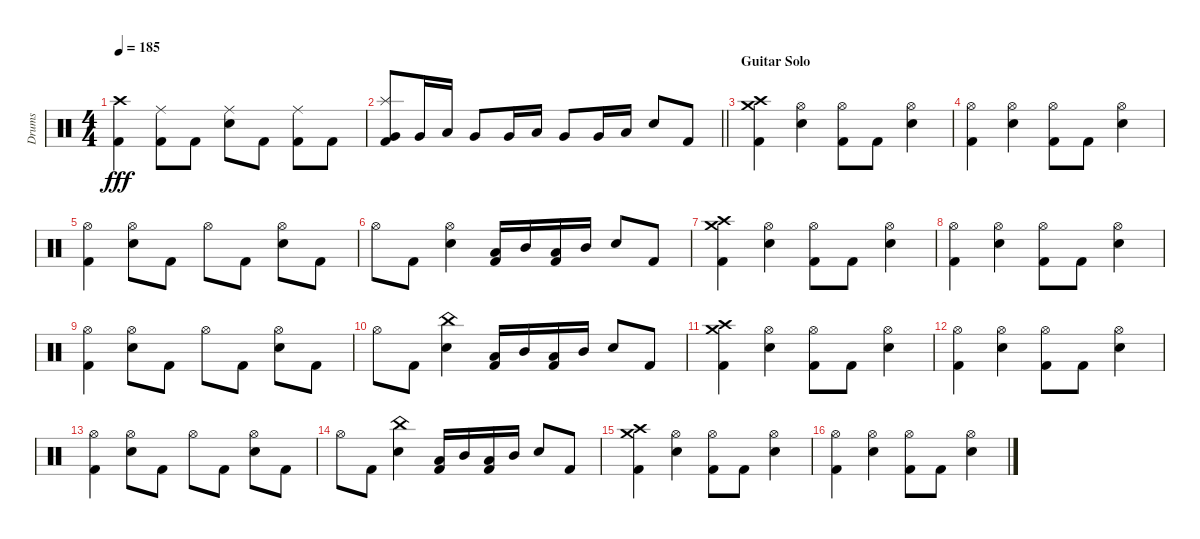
\track ("Drums" "Drums") {instrument percussion}
\staff {score}
\articulation defaults
\ts (4 4)
\tempo 185
\clef neutral
\ks c
("Crash high (hit)" "Kick (hit) 2").4{dy fff} ("Ride (middle)" "Kick (hit) 2").8 "Kick (hit) 2".8 ("Ride (middle)" "Electric Snare (hit)").8 "Kick (hit) 2".8 ("Ride (middle)" "Kick (hit) 2").8 "Kick (hit) 2".8 |
\barLineRight lightlight
("Splash (hit)" "Very Low Tom (hit)" "Kick (hit) 2").8 "Very Low Tom (hit)".16 "Low Floor Tom (hit)".16 "Very Low Tom (hit)".8 "Very Low Tom (hit)".16 "Low Floor Tom (hit)".16 "Very Low Tom (hit)".8 "Very Low Tom (hit)".16 "Low Floor Tom (hit)".16 "Electric Snare (hit)".8 "Kick (hit) 2".8 |
\section ("" "Guitar Solo")
("Crash high (hit)" "Crash medium (hit)" "Kick (hit) 2").4 ("Hi-Hat (open)" "Electric Snare (hit)").4 ("Hi-Hat (open)" "Kick (hit) 2").8 "Kick (hit) 2".8 ("Hi-Hat (open)" "Electric Snare (hit)").4 |
("Hi-Hat (open)" "Kick (hit) 2").4 ("Hi-Hat (open)" "Electric Snare (hit)").4 ("Hi-Hat (open)" "Kick (hit) 2").8 "Kick (hit) 2".8 ("Hi-Hat (open)" "Electric Snare (hit)").4 |
("Hi-Hat (open)" "Kick (hit) 2").4 ("Hi-Hat (open)" "Electric Snare (hit)").8 "Kick (hit) 2".8 "Hi-Hat (open)".8 "Kick (hit) 2".8 ("Hi-Hat (open)" "Electric Snare (hit)").8 "Kick (hit) 2".8 |
"Hi-Hat (open)".8 "Kick (hit) 2".8 ("Hi-Hat (open)" "Electric Snare (hit)").4 ("Low Tom (hit)" "Kick (hit) 2").16 "Mid Tom (hit)".16 ("Low Tom (hit)" "Kick (hit) 2").16 "Mid Tom (hit)".16 "Electric Snare (hit)".8 "Kick (hit) 2".8 |
("Crash high (hit)" "Crash medium (hit)" "Kick (hit) 2").4 ("Hi-Hat (open)" "Electric Snare (hit)").4 ("Hi-Hat (open)" "Kick (hit) 2").8 "Kick (hit) 2".8 ("Hi-Hat (open)" "Electric Snare (hit)").4 |
("Hi-Hat (open)" "Kick (hit) 2").4 ("Hi-Hat (open)" "Electric Snare (hit)").4 ("Hi-Hat (open)" "Kick (hit) 2").8 "Kick (hit) 2".8 ("Hi-Hat (open)" "Electric Snare (hit)").4 |
("Hi-Hat (open)" "Kick (hit) 2").4 ("Hi-Hat (open)" "Electric Snare (hit)").8 "Kick (hit) 2".8 "Hi-Hat (open)".8 "Kick (hit) 2".8 ("Hi-Hat (open)" "Electric Snare (hit)").8 "Kick (hit) 2".8 |
"Hi-Hat (open)".8 "Kick (hit) 2".8 ("China (hit)" "Electric Snare (hit)").4 ("Low Tom (hit)" "Kick (hit) 2").16 "Mid Tom (hit)".16 ("Low Tom (hit)" "Kick (hit) 2").16 "Mid Tom (hit)".16 "Electric Snare (hit)".8 "Kick (hit) 2".8 |
("Crash high (hit)" "Crash medium (hit)" "Kick (hit) 2").4 ("Hi-Hat (open)" "Electric Snare (hit)").4 ("Hi-Hat (open)" "Kick (hit) 2").8 "Kick (hit) 2".8 ("Hi-Hat (open)" "Electric Snare (hit)").4 |
("Hi-Hat (open)" "Kick (hit) 2").4 ("Hi-Hat (open)" "Electric Snare (hit)").4 ("Hi-Hat (open)" "Kick (hit) 2").8 "Kick (hit) 2".8 ("Hi-Hat (open)" "Electric Snare (hit)").4 |
("Hi-Hat (open)" "Kick (hit) 2").4 ("Hi-Hat (open)" "Electric Snare (hit)").8 "Kick (hit) 2".8 "Hi-Hat (open)".8 "Kick (hit) 2".8 ("Hi-Hat (open)" "Electric Snare (hit)").8 "Kick (hit) 2".8 |
"Hi-Hat (open)".8 "Kick (hit) 2".8 ("China (hit)" "Electric Snare (hit)").4 ("Low Tom (hit)" "Kick (hit) 2").16 "Mid Tom (hit)".16 ("Low Tom (hit)" "Kick (hit) 2").16 "Mid Tom (hit)".16 "Electric Snare (hit)".8 "Kick (hit) 2".8 |
("Crash high (hit)" "Crash medium (hit)" "Kick (hit) 2").4 ("Hi-Hat (open)" "Electric Snare (hit)").4 ("Hi-Hat (open)" "Kick (hit) 2").8 "Kick (hit) 2".8 ("Hi-Hat (open)" "Electric Snare (hit)").4 |
("Hi-Hat (open)" "Kick (hit) 2").4 ("Hi-Hat (open)" "Electric Snare (hit)").4 ("Hi-Hat (open)" "Kick (hit) 2").8 "Kick (hit) 2".8 ("Hi-Hat (open)" "Electric Snare (hit)").4
